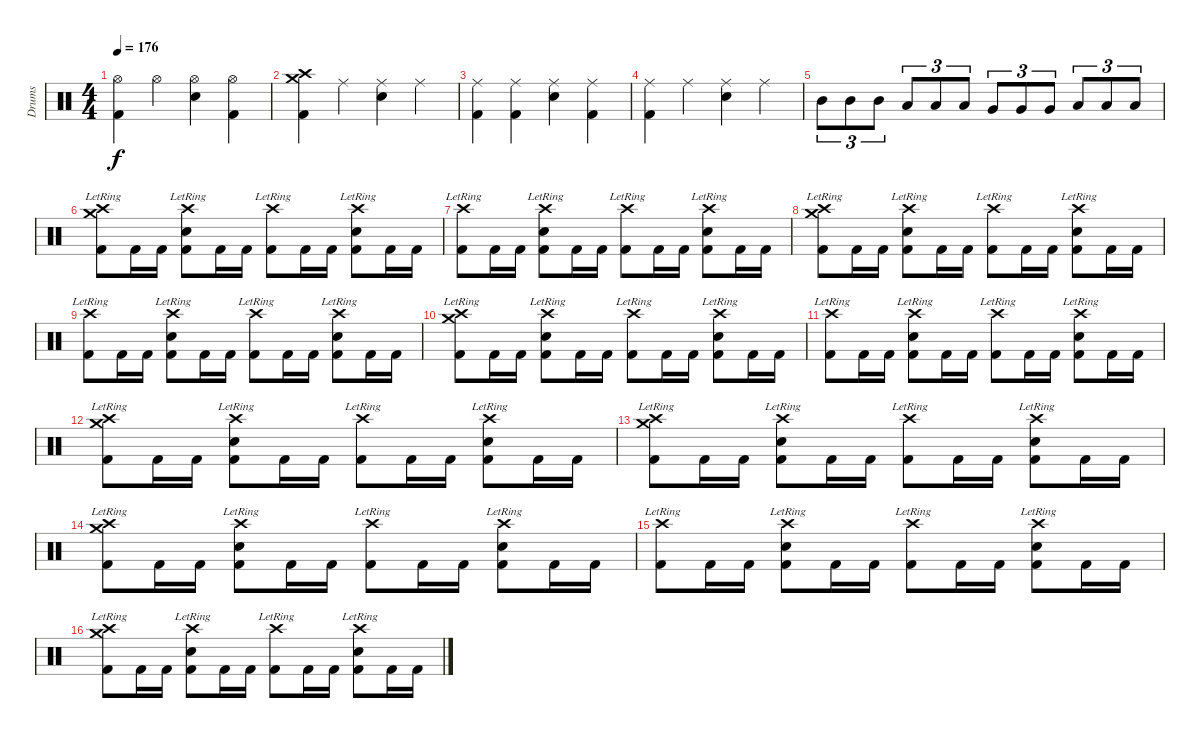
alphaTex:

\track ("Drums" "Drums") {instrument percussion}
\staff {score}
\articulation defaults
\ts (4 4)
\tempo 176
\clef neutral
\ks c
("Hi-Hat (open)" "Kick (hit) 2").4{dy f} "Hi-Hat (open)".4 ("Hi-Hat (open)" "Snare (hit) 2").4 ("Hi-Hat (open)" "Kick (hit) 2").4 |
("Crash medium (hit)" "Crash high (hit)" "Kick (hit) 2").4 "Ride (middle)".4 ("Ride (middle)" "Snare (hit) 2").4 "Ride (middle)".4 |
("Ride (middle)" "Kick (hit) 2").4 ("Ride (middle)" "Kick (hit) 2").4 ("Ride (middle)" "Snare (hit) 2").4 ("Ride (middle)" "Kick (hit) 2").4 |
("Ride (middle)" "Kick (hit) 2").4 "Ride (middle)".4 ("Ride (middle)" "Snare (hit) 2").4 "Ride (middle)".4 |
"Mid Tom (hit)".8{tu (3 2)} "Mid Tom (hit)".8{tu (3 2)} "Mid Tom (hit)".8{tu (3 2)} "Low Tom (hit)".8{tu (3 2)} "Low Tom (hit)".8{tu (3 2)} "Low Tom (hit)".8{tu (3 2)} "Very Low Tom (hit)".8{tu (3 2)} "Very Low Tom (hit)".8{tu (3 2)} "Very Low Tom (hit)".8{tu (3 2)} "Low Floor Tom (hit)".8{tu (3 2)} "Low Floor Tom (hit)".8{tu (3 2)} "Low Floor Tom (hit)".8{tu (3 2)} |
("Crash high (hit)"{lr} "Crash medium (hit)" "Kick (hit) 2").8 "Kick (hit) 2".16 "Kick (hit) 2".16 ("Crash high (hit)"{lr} "Snare (hit) 2" "Kick (hit) 2").8 "Kick (hit) 2".16 "Kick (hit) 2".16 ("Crash high (hit)"{lr} "Kick (hit) 2").8 "Kick (hit) 2".16 "Kick (hit) 2".16 ("Crash high (hit)"{lr} "Snare (hit) 2" "Kick (hit) 2").8 "Kick (hit) 2".16 "Kick (hit) 2".16 |
("Crash high (hit)"{lr} "Kick (hit) 2").8 "Kick (hit) 2".16 "Kick (hit) 2".16 ("Crash high (hit)"{lr} "Snare (hit) 2" "Kick (hit) 2").8 "Kick (hit) 2".16 "Kick (hit) 2".16 ("Crash high (hit)"{lr} "Kick (hit) 2").8 "Kick (hit) 2".16 "Kick (hit) 2".16 ("Crash high (hit)"{lr} "Snare (hit) 2" "Kick (hit) 2").8 "Kick (hit) 2".16 "Kick (hit) 2".16 |
("Crash high (hit)"{lr} "Crash medium (hit)" "Kick (hit) 2").8 "Kick (hit) 2".16 "Kick (hit) 2".16 ("Crash high (hit)"{lr} "Snare (hit) 2" "Kick (hit) 2").8 "Kick (hit) 2".16 "Kick (hit) 2".16 ("Crash high (hit)"{lr} "Kick (hit) 2").8 "Kick (hit) 2".16 "Kick (hit) 2".16 ("Crash high (hit)"{lr} "Snare (hit) 2" "Kick (hit) 2").8 "Kick (hit) 2".16 "Kick (hit) 2".16 |
("Crash high (hit)"{lr} "Kick (hit) 2").8 "Kick (hit) 2".16 "Kick (hit) 2".16 ("Crash high (hit)"{lr} "Snare (hit) 2" "Kick (hit) 2").8 "Kick (hit) 2".16 "Kick (hit) 2".16 ("Crash high (hit)"{lr} "Kick (hit) 2").8 "Kick (hit) 2".16 "Kick (hit) 2".16 ("Crash high (hit)"{lr} "Snare (hit) 2" "Kick (hit) 2").8 "Kick (hit) 2".16 "Kick (hit) 2".16 |
("Crash high (hit)"{lr} "Crash medium (hit)" "Kick (hit) 2").8 "Kick (hit) 2".16 "Kick (hit) 2".16 ("Crash high (hit)"{lr} "Snare (hit) 2" "Kick (hit) 2").8 "Kick (hit) 2".16 "Kick (hit) 2".16 ("Crash high (hit)"{lr} "Kick (hit) 2").8 "Kick (hit) 2".16 "Kick (hit) 2".16 ("Crash high (hit)"{lr} "Snare (hit) 2" "Kick (hit) 2").8 "Kick (hit) 2".16 "Kick (hit) 2".16 |
("Crash high (hit)"{lr} "Kick (hit) 2").8 "Kick (hit) 2".16 "Kick (hit) 2".16 ("Crash high (hit)"{lr} "Snare (hit) 2" "Kick (hit) 2").8 "Kick (hit) 2".16 "Kick (hit) 2".16 ("Crash high (hit)"{lr} "Kick (hit) 2").8 "Kick (hit) 2".16 "Kick (hit) 2".16 ("Crash high (hit)"{lr} "Snare (hit) 2" "Kick (hit) 2").8 "Kick (hit) 2".16 "Kick (hit) 2".16 |
("Crash high (hit)"{lr} "Crash medium (hit)" "Kick (hit) 2").8 "Kick (hit) 2".16 "Kick (hit) 2".16 ("Crash high (hit)"{lr} "Snare (hit) 2" "Kick (hit) 2").8 "Kick (hit) 2".16 "Kick (hit) 2".16 ("Crash high (hit)"{lr} "Kick (hit) 2").8 "Kick (hit) 2".16 "Kick (hit) 2".16 ("Crash high (hit)"{lr} "Snare (hit) 2" "Kick (hit) 2").8 "Kick (hit) 2".16 "Kick (hit) 2".16 |
("Crash high (hit)"{lr} "Crash medium (hit)" "Kick (hit) 2").8 "Kick (hit) 2".16 "Kick (hit) 2".16 ("Crash high (hit)"{lr} "Snare (hit) 2" "Kick (hit) 2").8 "Kick (hit) 2".16 "Kick (hit) 2".16 ("Crash high (hit)"{lr} "Kick (hit) 2").8 "Kick (hit) 2".16 "Kick (hit) 2".16 ("Crash high (hit)"{lr} "Snare (hit) 2" "Kick (hit) 2").8 "Kick (hit) 2".16 "Kick (hit) 2".16 |
("Crash high (hit)"{lr} "Crash medium (hit)" "Kick (hit) 2").8 "Kick (hit) 2".16 "Kick (hit) 2".16 ("Crash high (hit)"{lr} "Snare (hit) 2" "Kick (hit) 2").8 "Kick (hit) 2".16 "Kick (hit) 2".16 ("Crash high (hit)"{lr} "Kick (hit) 2").8 "Kick (hit) 2".16 "Kick (hit) 2".16 ("Crash high (hit)"{lr} "Snare (hit) 2" "Kick (hit) 2").8 "Kick (hit) 2".16 "Kick (hit) 2".16 |
("Crash high (hit)"{lr} "Kick (hit) 2").8 "Kick (hit) 2".16 "Kick (hit) 2".16 ("Crash high (hit)"{lr} "Snare (hit) 2" "Kick (hit) 2").8 "Kick (hit) 2".16 "Kick (hit) 2".16 ("Crash high (hit)"{lr} "Kick (hit) 2").8 "Kick (hit) 2".16 "Kick (hit) 2".16 ("Crash high (hit)"{lr} "Snare (hit) 2" "Kick (hit) 2").8 "Kick (hit) 2".16 "Kick (hit) 2".16 |
("Crash high (hit)"{lr} "Crash medium (hit)" "Kick (hit) 2").8 "Kick (hit) 2".16 "Kick (hit) 2".16 ("Crash high (hit)"{lr} "Snare (hit) 2" "Kick (hit) 2").8 "Kick (hit) 2".16 "Kick (hit) 2".16 ("Crash high (hit)"{lr} "Kick (hit) 2").8 "Kick (hit) 2".16 "Kick (hit) 2".16 ("Crash high (hit)"{lr} "Snare (hit) 2" "Kick (hit) 2").8 "Kick (hit) 2".16 "Kick (hit) 2".16
